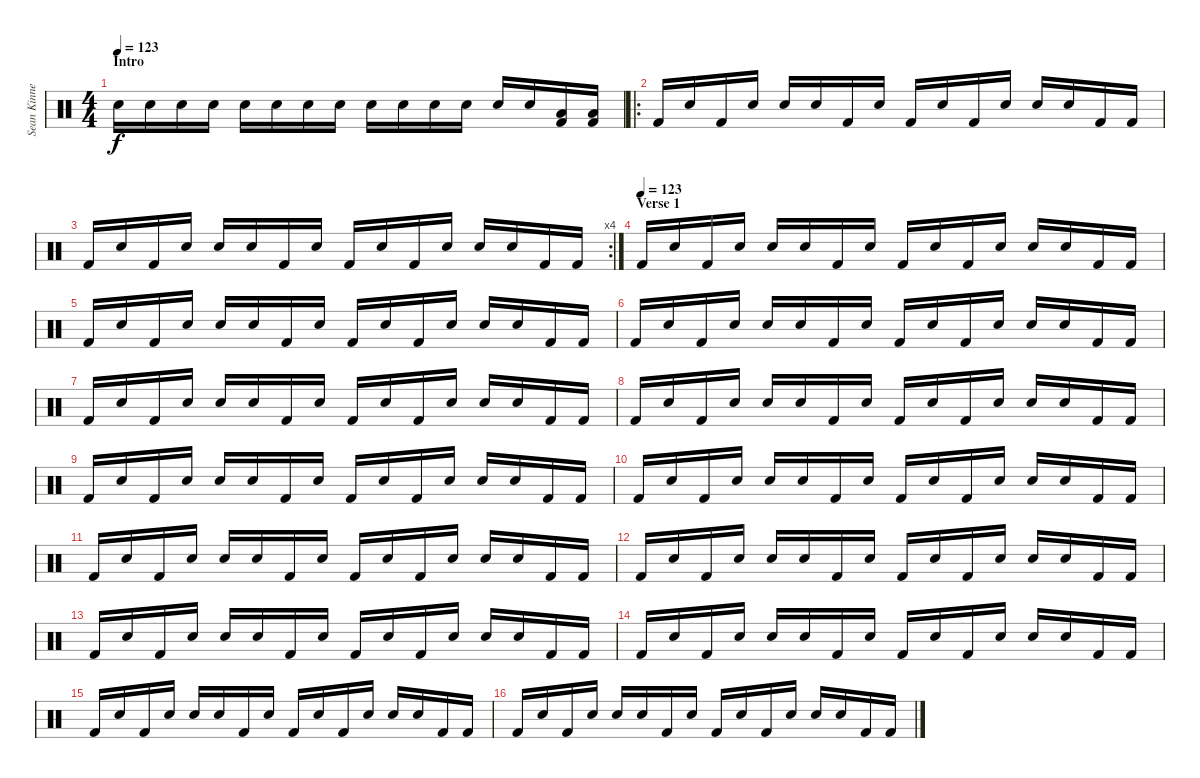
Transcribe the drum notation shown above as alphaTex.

\track ("Sean Kinney - Drums" "Sean Kinne") {instrument percussion}
\staff {score}
\articulation defaults
\ts (4 4)
\section ("" "Intro")
\tempo 123
\clef neutral
\ks c "Snare (hit)".16{dy f volume 16 balance 8} "Snare (hit)".16 "Snare (hit)".16 "Snare (hit)".16 "Snare (hit)".16 "Snare (hit)".16 "Snare (hit)".16 "Snare (hit)".16 "Snare (hit)".16 "Snare (hit)".16 "Snare (hit)".16 "Snare (hit)".16 "Snare (hit)".16 "Snare (hit)".16
("Low Floor Tom (hit)" "Kick (hit) 2").16 ("Low Floor Tom (hit)" "Kick (hit) 2").16 |
\ro "Kick (hit) 2".16 "Snare (hit)".16 "Kick (hit) 2".16 "Snare (hit)".16 "Electric Snare (hit)".16 "Snare (hit)".16 "Kick (hit) 2".16 "Snare (hit)".16 "Kick (hit) 2".16 "Snare (hit)".16 "Kick (hit) 2".16 "Snare (hit)".16 "Electric Snare (hit)".16 "Snare (hit)".16 "Kick (hit) 2".16 "Kick (hit) 2".16
|
\rc 4 "Kick (hit) 2".16 "Snare (hit)".16 "Kick (hit) 2".16 "Snare (hit)".16 "Electric Snare (hit)".16 "Snare (hit)".16 "Kick (hit) 2".16 "Snare (hit)".16 "Kick (hit) 2".16 "Snare (hit)".16 "Kick (hit) 2".16 "Snare (hit)".16 "Electric Snare (hit)".16 "Snare (hit)".16 "Kick (hit) 2".16 "Kick (hit) 2".16
|
\section ("" "Verse 1")
\tempo (123)
"Kick (hit) 2".16{volume 16 balance 8} "Snare (hit)".16 "Kick (hit) 2".16 "Snare (hit)".16 "Electric Snare (hit)".16 "Snare (hit)".16 "Kick (hit) 2".16 "Snare (hit)".16 "Kick (hit) 2".16 "Snare (hit)".16 "Kick (hit) 2".16 "Snare (hit)".16 "Electric Snare (hit)".16 "Snare (hit)".16 "Kick (hit) 2".16 "Kick (hit) 2".16 |
"Kick (hit) 2".16 "Snare (hit)".16 "Kick (hit) 2".16 "Snare (hit)".16 "Electric Snare (hit)".16 "Snare (hit)".16 "Kick (hit) 2".16 "Snare (hit)".16 "Kick (hit) 2".16 "Snare (hit)".16 "Kick (hit) 2".16 "Snare (hit)".16 "Electric Snare (hit)".16 "Snare (hit)".16 "Kick (hit) 2".16 "Kick (hit) 2".16 |
"Kick (hit) 2".16 "Snare (hit)".16 "Kick (hit) 2".16 "Snare (hit)".16 "Electric Snare (hit)".16 "Snare (hit)".16 "Kick (hit) 2".16 "Snare (hit)".16 "Kick (hit) 2".16 "Snare (hit)".16 "Kick (hit) 2".16 "Snare (hit)".16 "Electric Snare (hit)".16 "Snare (hit)".16 "Kick (hit) 2".16 "Kick (hit) 2".16 |
"Kick (hit) 2".16 "Snare (hit)".16 "Kick (hit) 2".16 "Snare (hit)".16 "Electric Snare (hit)".16 "Snare (hit)".16 "Kick (hit) 2".16 "Snare (hit)".16 "Kick (hit) 2".16 "Snare (hit)".16 "Kick (hit) 2".16 "Snare (hit)".16 "Electric Snare (hit)".16 "Snare (hit)".16 "Kick (hit) 2".16 "Kick (hit) 2".16 |
"Kick (hit) 2".16 "Snare (hit)".16 "Kick (hit) 2".16 "Snare (hit)".16 "Electric Snare (hit)".16 "Snare (hit)".16 "Kick (hit) 2".16 "Snare (hit)".16 "Kick (hit) 2".16 "Snare (hit)".16 "Kick (hit) 2".16 "Snare (hit)".16 "Electric Snare (hit)".16 "Snare (hit)".16 "Kick (hit) 2".16 "Kick (hit) 2".16 |
"Kick (hit) 2".16 "Snare (hit)".16 "Kick (hit) 2".16 "Snare (hit)".16 "Electric Snare (hit)".16 "Snare (hit)".16 "Kick (hit) 2".16 "Snare (hit)".16 "Kick (hit) 2".16 "Snare (hit)".16 "Kick (hit) 2".16 "Snare (hit)".16 "Electric Snare (hit)".16 "Snare (hit)".16 "Kick (hit) 2".16 "Kick (hit) 2".16 |
"Kick (hit) 2".16 "Snare (hit)".16 "Kick (hit) 2".16 "Snare (hit)".16 "Electric Snare (hit)".16 "Snare (hit)".16 "Kick (hit) 2".16 "Snare (hit)".16 "Kick (hit) 2".16 "Snare (hit)".16 "Kick (hit) 2".16 "Snare (hit)".16 "Electric Snare (hit)".16 "Snare (hit)".16 "Kick (hit) 2".16 "Kick (hit) 2".16 |
"Kick (hit) 2".16 "Snare (hit)".16 "Kick (hit) 2".16 "Snare (hit)".16 "Electric Snare (hit)".16 "Snare (hit)".16 "Kick (hit) 2".16 "Snare (hit)".16 "Kick (hit) 2".16 "Snare (hit)".16 "Kick (hit) 2".16 "Snare (hit)".16 "Electric Snare (hit)".16 "Snare (hit)".16 "Kick (hit) 2".16 "Kick (hit) 2".16 |
"Kick (hit) 2".16 "Snare (hit)".16 "Kick (hit) 2".16 "Snare (hit)".16 "Electric Snare (hit)".16 "Snare (hit)".16 "Kick (hit) 2".16 "Snare (hit)".16 "Kick (hit) 2".16 "Snare (hit)".16 "Kick (hit) 2".16 "Snare (hit)".16 "Electric Snare (hit)".16 "Snare (hit)".16 "Kick (hit) 2".16 "Kick (hit) 2".16 |
"Kick (hit) 2".16 "Snare (hit)".16 "Kick (hit) 2".16 "Snare (hit)".16 "Electric Snare (hit)".16 "Snare (hit)".16 "Kick (hit) 2".16 "Snare (hit)".16 "Kick (hit) 2".16 "Snare (hit)".16 "Kick (hit) 2".16 "Snare (hit)".16 "Electric Snare (hit)".16 "Snare (hit)".16 "Kick (hit) 2".16 "Kick (hit) 2".16 |
"Kick (hit) 2".16 "Snare (hit)".16 "Kick (hit) 2".16 "Snare (hit)".16 "Electric Snare (hit)".16 "Snare (hit)".16 "Kick (hit) 2".16 "Snare (hit)".16 "Kick (hit) 2".16 "Snare (hit)".16 "Kick (hit) 2".16 "Snare (hit)".16 "Electric Snare (hit)".16 "Snare (hit)".16 "Kick (hit) 2".16 "Kick (hit) 2".16 |
"Kick (hit) 2".16 "Snare (hit)".16 "Kick (hit) 2".16 "Snare (hit)".16 "Electric Snare (hit)".16 "Snare (hit)".16 "Kick (hit) 2".16 "Snare (hit)".16 "Kick (hit) 2".16 "Snare (hit)".16 "Kick (hit) 2".16 "Snare (hit)".16 "Electric Snare (hit)".16 "Snare (hit)".16 "Kick (hit) 2".16 "Kick (hit) 2".16 |
"Kick (hit) 2".16 "Snare (hit)".16 "Kick (hit) 2".16 "Snare (hit)".16 "Electric Snare (hit)".16 "Snare (hit)".16 "Kick (hit) 2".16 "Snare (hit)".16 "Kick (hit) 2".16 "Snare (hit)".16 "Kick (hit) 2".16 "Snare (hit)".16 "Electric Snare (hit)".16 "Snare (hit)".16 "Kick (hit) 2".16 "Kick (hit) 2".16
